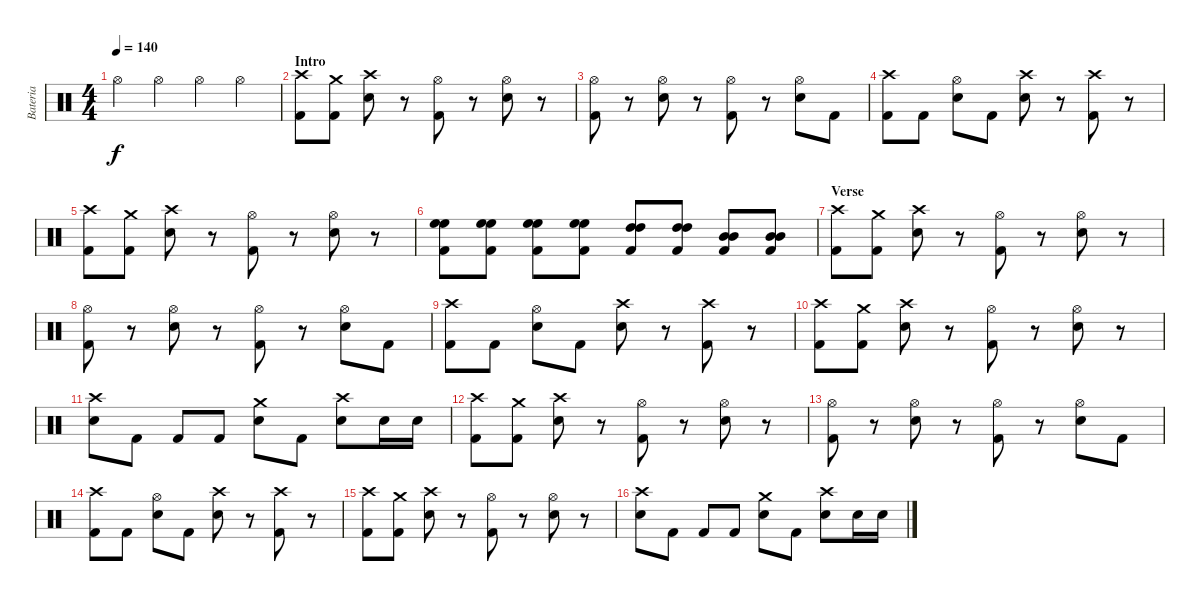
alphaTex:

\track ("Bateria" "Bateria") {instrument percussion}
\staff {score}
\articulation defaults
\ts (4 4)
\tempo 140
\clef neutral
\ks c "Hi-Hat (open)".4{dy f} "Hi-Hat (open)".4 "Hi-Hat (open)".4 "Hi-Hat (open)".4
|
\section ("" "Intro")
("Crash high (hit)" "Kick (hit) 2").8 ("Crash medium (hit)" "Kick (hit) 2").8 ("Crash high (hit)" "Snare (hit) 2").8 r.8 ("Hi-Hat (open)" "Kick (hit) 2").8 r.8 ("Hi-Hat (open)" "Snare (hit) 2").8 r.8 |
("Hi-Hat (open)" "Kick (hit) 2").8 r.8 ("Hi-Hat (open)" "Snare (hit) 2").8 r.8 ("Hi-Hat (open)" "Kick (hit) 2").8 r.8 ("Hi-Hat (open)" "Snare (hit) 2").8 "Kick (hit) 2".8 |
("Crash high (hit)" "Kick (hit) 2").8 "Kick (hit) 2".8 ("Hi-Hat (open)" "Snare (hit) 2").8 "Kick (hit) 2".8 ("Crash high (hit)" "Snare (hit) 2").8 r.8 ("Crash high (hit)" "Kick (hit) 2").8 r.8 |
("Crash high (hit)" "Kick (hit) 2").8 ("Crash medium (hit)" "Kick (hit) 2").8 ("Crash high (hit)" "Snare (hit) 2").8 r.8 ("Hi-Hat (open)" "Kick (hit) 2").8 r.8 ("Hi-Hat (open)" "Snare (hit) 2").8 r.8 |
("High Floor Tom (hit)" "High Floor Tom (hit)" "Kick (hit) 2").8 ("High Floor Tom (hit)" "High Floor Tom (hit)" "Kick (hit) 2").8 ("High Floor Tom (hit)" "High Floor Tom (hit)" "Kick (hit) 2").8 ("High Floor Tom (hit)" "High Floor Tom (hit)" "Kick (hit) 2").8 ("High Tom (hit)" "High Tom (hit)" "Kick (hit) 2").8 ("High Tom (hit)" "High Tom (hit)" "Kick (hit) 2").8 ("Mid Tom (hit)" "Mid Tom (hit)" "Kick (hit) 2").8 ("Mid Tom (hit)" "Mid Tom (hit)" "Kick (hit) 2").8 |
\section ("" "Verse")
("Crash high (hit)" "Kick (hit) 2").8 ("Crash medium (hit)" "Kick (hit) 2").8 ("Crash high (hit)" "Snare (hit) 2").8 r.8 ("Hi-Hat (open)" "Kick (hit) 2").8 r.8 ("Hi-Hat (open)" "Snare (hit) 2").8 r.8 |
("Hi-Hat (open)" "Kick (hit) 2").8 r.8 ("Hi-Hat (open)" "Snare (hit) 2").8 r.8 ("Hi-Hat (open)" "Kick (hit) 2").8 r.8 ("Hi-Hat (open)" "Snare (hit) 2").8 "Kick (hit) 2".8 |
("Crash high (hit)" "Kick (hit) 2").8 "Kick (hit) 2".8 ("Hi-Hat (open)" "Snare (hit) 2").8 "Kick (hit) 2".8 ("Crash high (hit)" "Snare (hit) 2").8 r.8 ("Crash high (hit)" "Kick (hit) 2").8 r.8 |
("Crash high (hit)" "Kick (hit) 2").8 ("Crash medium (hit)" "Kick (hit) 2").8 ("Crash high (hit)" "Snare (hit) 2").8 r.8 ("Hi-Hat (open)" "Kick (hit) 2").8 r.8 ("Hi-Hat (open)" "Snare (hit) 2").8 r.8 |
("Crash high (hit)" "Snare (hit) 2").8 "Kick (hit) 2".8 "Kick (hit) 2".8 "Kick (hit) 2".8 ("Crash medium (hit)" "Snare (hit) 2").8 "Kick (hit) 2".8 ("Crash high (hit)" "Snare (hit) 2").8 "Snare (hit) 2".16 "Snare (hit) 2".16 |
("Crash high (hit)" "Kick (hit) 2").8 ("Crash medium (hit)" "Kick (hit) 2").8 ("Crash high (hit)" "Snare (hit) 2").8 r.8 ("Hi-Hat (open)" "Kick (hit) 2").8 r.8 ("Hi-Hat (open)" "Snare (hit) 2").8 r.8 |
("Hi-Hat (open)" "Kick (hit) 2").8 r.8 ("Hi-Hat (open)" "Snare (hit) 2").8 r.8 ("Hi-Hat (open)" "Kick (hit) 2").8 r.8 ("Hi-Hat (open)" "Snare (hit) 2").8 "Kick (hit) 2".8 |
("Crash high (hit)" "Kick (hit) 2").8 "Kick (hit) 2".8 ("Hi-Hat (open)" "Snare (hit) 2").8 "Kick (hit) 2".8 ("Crash high (hit)" "Snare (hit) 2").8 r.8 ("Crash high (hit)" "Kick (hit) 2").8 r.8 |
("Crash high (hit)" "Kick (hit) 2").8 ("Crash medium (hit)" "Kick (hit) 2").8 ("Crash high (hit)" "Snare (hit) 2").8 r.8 ("Hi-Hat (open)" "Kick (hit) 2").8 r.8 ("Hi-Hat (open)" "Snare (hit) 2").8 r.8 |
("Crash high (hit)" "Snare (hit) 2").8 "Kick (hit) 2".8 "Kick (hit) 2".8 "Kick (hit) 2".8 ("Crash medium (hit)" "Snare (hit) 2").8 "Kick (hit) 2".8 ("Crash high (hit)" "Snare (hit) 2").8 "Snare (hit) 2".16 "Snare (hit) 2".16
